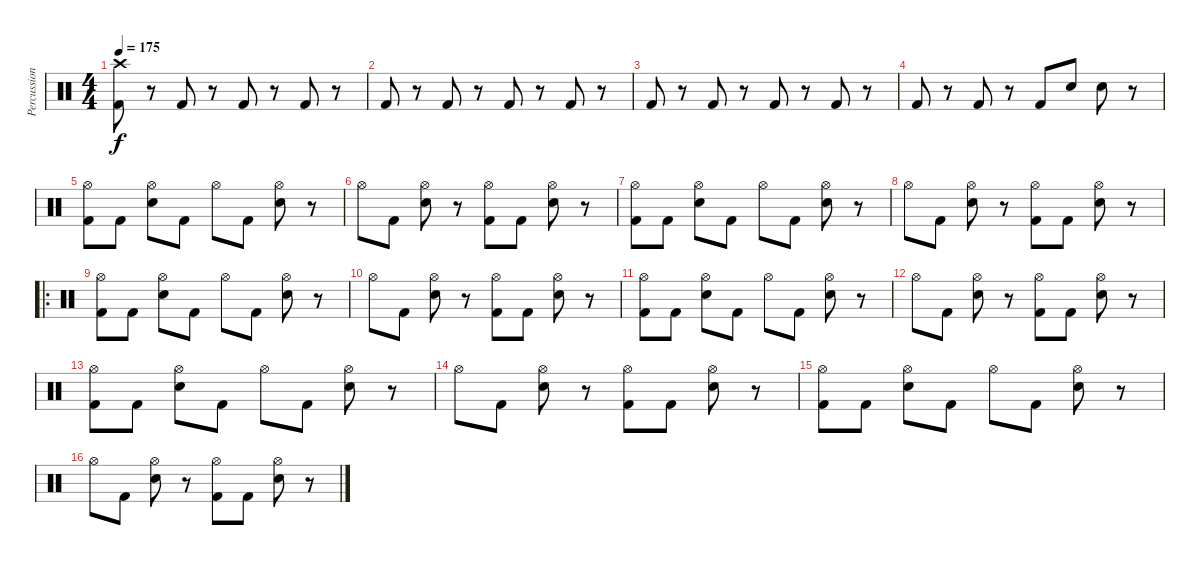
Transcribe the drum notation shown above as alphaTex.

\track ("Percussion" "Percussion") {instrument percussion}
\staff {score}
\articulation defaults
\ts (4 4)
\tempo 175
\clef neutral
\ks c
("Crash high (hit)" "Kick (hit) 2").8{dy f} r.8 "Kick (hit) 2".8 r.8 "Kick (hit) 2".8 r.8 "Kick (hit) 2".8 r.8 |
"Kick (hit) 2".8 r.8 "Kick (hit) 2".8 r.8 "Kick (hit) 2".8 r.8 "Kick (hit) 2".8 r.8 |
"Kick (hit) 2".8 r.8 "Kick (hit) 2".8 r.8 "Kick (hit) 2".8 r.8 "Kick (hit) 2".8 r.8 |
"Kick (hit) 2".8 r.8 "Kick (hit) 2".8 r.8 "Kick (hit) 2".8 "Hand Clap (hit)".8 "Hand Clap (hit)".8 r.8 |
("Hi-Hat (open)" "Kick (hit) 2").8 "Kick (hit) 2".8 ("Hi-Hat (open)" "Snare (hit) 2").8 "Kick (hit) 2".8 "Hi-Hat (open)".8 "Kick (hit) 2".8 ("Hi-Hat (open)" "Snare (hit) 2").8 r.8 |
"Hi-Hat (open)".8 "Kick (hit) 2".8 ("Hi-Hat (open)" "Snare (hit) 2").8 r.8 ("Hi-Hat (open)" "Kick (hit) 2").8 "Kick (hit) 2".8 ("Hi-Hat (open)" "Snare (hit) 2").8 r.8 |
("Hi-Hat (open)" "Kick (hit) 2").8 "Kick (hit) 2".8 ("Hi-Hat (open)" "Snare (hit) 2").8 "Kick (hit) 2".8 "Hi-Hat (open)".8 "Kick (hit) 2".8 ("Hi-Hat (open)" "Snare (hit) 2").8 r.8 |
"Hi-Hat (open)".8 "Kick (hit) 2".8 ("Hi-Hat (open)" "Snare (hit) 2").8 r.8 ("Hi-Hat (open)" "Kick (hit) 2").8 "Kick (hit) 2".8 ("Hi-Hat (open)" "Snare (hit) 2").8 r.8 |
\ro
("Hi-Hat (open)" "Kick (hit) 2").8 "Kick (hit) 2".8 ("Hi-Hat (open)" "Snare (hit) 2").8 "Kick (hit) 2".8 "Hi-Hat (open)".8 "Kick (hit) 2".8 ("Hi-Hat (open)" "Snare (hit) 2").8 r.8 |
"Hi-Hat (open)".8 "Kick (hit) 2".8 ("Hi-Hat (open)" "Snare (hit) 2").8 r.8 ("Hi-Hat (open)" "Kick (hit) 2").8 "Kick (hit) 2".8 ("Hi-Hat (open)" "Snare (hit) 2").8 r.8 |
("Hi-Hat (open)" "Kick (hit) 2").8 "Kick (hit) 2".8 ("Hi-Hat (open)" "Snare (hit) 2").8 "Kick (hit) 2".8 "Hi-Hat (open)".8 "Kick (hit) 2".8 ("Hi-Hat (open)" "Snare (hit) 2").8 r.8 |
"Hi-Hat (open)".8 "Kick (hit) 2".8 ("Hi-Hat (open)" "Snare (hit) 2").8 r.8 ("Hi-Hat (open)" "Kick (hit) 2").8 "Kick (hit) 2".8 ("Hi-Hat (open)" "Snare (hit) 2").8 r.8 |
("Hi-Hat (open)" "Kick (hit) 2").8 "Kick (hit) 2".8 ("Hi-Hat (open)" "Snare (hit) 2").8 "Kick (hit) 2".8 "Hi-Hat (open)".8 "Kick (hit) 2".8 ("Hi-Hat (open)" "Snare (hit) 2").8 r.8 |
"Hi-Hat (open)".8 "Kick (hit) 2".8 ("Hi-Hat (open)" "Snare (hit) 2").8 r.8 ("Hi-Hat (open)" "Kick (hit) 2").8 "Kick (hit) 2".8 ("Hi-Hat (open)" "Snare (hit) 2").8 r.8 |
("Hi-Hat (open)" "Kick (hit) 2").8 "Kick (hit) 2".8 ("Hi-Hat (open)" "Snare (hit) 2").8 "Kick (hit) 2".8 "Hi-Hat (open)".8 "Kick (hit) 2".8 ("Hi-Hat (open)" "Snare (hit) 2").8 r.8 |
"Hi-Hat (open)".8 "Kick (hit) 2".8 ("Hi-Hat (open)" "Snare (hit) 2").8 r.8 ("Hi-Hat (open)" "Kick (hit) 2").8 "Kick (hit) 2".8 ("Hi-Hat (open)" "Snare (hit) 2").8 r.8
